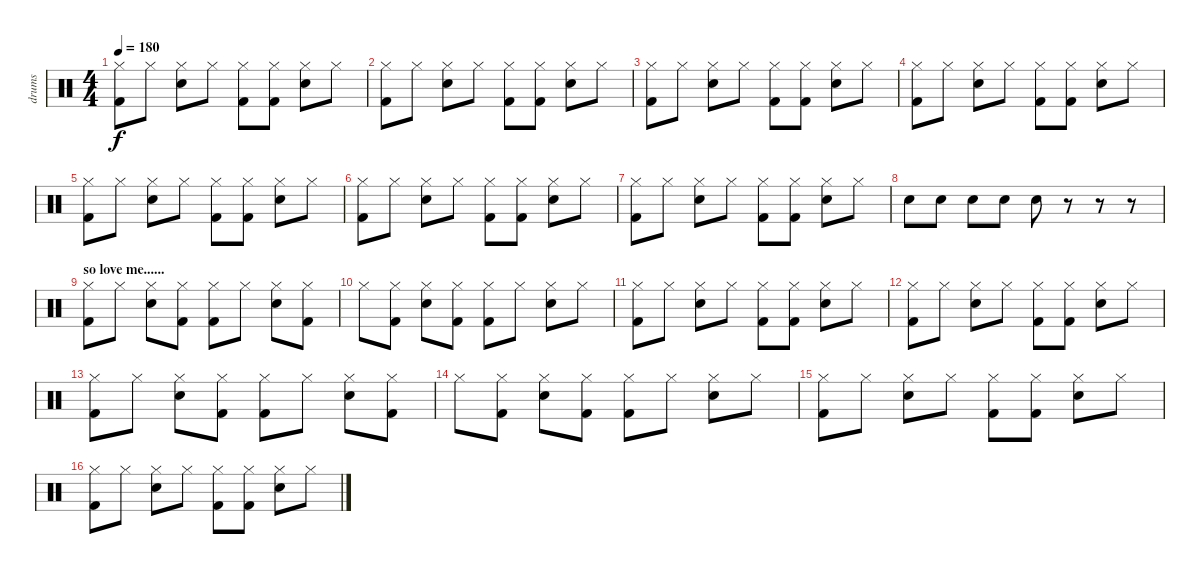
\track ("drums" "drums") {instrument percussion}
\staff {score}
\articulation defaults
\ts (4 4)
\tempo 180
\clef neutral
\ks c
("Hi-Hat (closed)" "Kick (hit) 2").8{dy f} "Hi-Hat (closed)".8 ("Hi-Hat (closed)" "Snare (hit) 2").8 "Hi-Hat (closed)".8 ("Hi-Hat (closed)" "Kick (hit) 2").8 ("Hi-Hat (closed)" "Kick (hit) 2").8 ("Hi-Hat (closed)" "Snare (hit) 2").8 "Hi-Hat (closed)".8 |
("Hi-Hat (closed)" "Kick (hit) 2").8 "Hi-Hat (closed)".8 ("Hi-Hat (closed)" "Snare (hit) 2").8 "Hi-Hat (closed)".8 ("Hi-Hat (closed)" "Kick (hit) 2").8 ("Hi-Hat (closed)" "Kick (hit) 2").8 ("Hi-Hat (closed)" "Snare (hit) 2").8 "Hi-Hat (closed)".8 |
("Hi-Hat (closed)" "Kick (hit) 2").8 "Hi-Hat (closed)".8 ("Hi-Hat (closed)" "Snare (hit) 2").8 "Hi-Hat (closed)".8 ("Hi-Hat (closed)" "Kick (hit) 2").8 ("Hi-Hat (closed)" "Kick (hit) 2").8 ("Hi-Hat (closed)" "Snare (hit) 2").8 "Hi-Hat (closed)".8 |
("Hi-Hat (closed)" "Kick (hit) 2").8 "Hi-Hat (closed)".8 ("Hi-Hat (closed)" "Snare (hit) 2").8 "Hi-Hat (closed)".8 ("Hi-Hat (closed)" "Kick (hit) 2").8 ("Hi-Hat (closed)" "Kick (hit) 2").8 ("Hi-Hat (closed)" "Snare (hit) 2").8 "Hi-Hat (closed)".8 |
("Hi-Hat (closed)" "Kick (hit) 2").8 "Hi-Hat (closed)".8 ("Hi-Hat (closed)" "Snare (hit) 2").8 "Hi-Hat (closed)".8 ("Hi-Hat (closed)" "Kick (hit) 2").8 ("Hi-Hat (closed)" "Kick (hit) 2").8 ("Hi-Hat (closed)" "Snare (hit) 2").8 "Hi-Hat (closed)".8 |
("Hi-Hat (closed)" "Kick (hit) 2").8 "Hi-Hat (closed)".8 ("Hi-Hat (closed)" "Snare (hit) 2").8 "Hi-Hat (closed)".8 ("Hi-Hat (closed)" "Kick (hit) 2").8 ("Hi-Hat (closed)" "Kick (hit) 2").8 ("Hi-Hat (closed)" "Snare (hit) 2").8 "Hi-Hat (closed)".8 |
("Hi-Hat (closed)" "Kick (hit) 2").8 "Hi-Hat (closed)".8 ("Hi-Hat (closed)" "Snare (hit) 2").8 "Hi-Hat (closed)".8 ("Hi-Hat (closed)" "Kick (hit) 2").8 ("Hi-Hat (closed)" "Kick (hit) 2").8 ("Hi-Hat (closed)" "Snare (hit) 2").8 "Hi-Hat (closed)".8 |
"Snare (hit) 2".8 "Snare (hit) 2".8 "Snare (hit) 2".8 "Snare (hit) 2".8 "Snare (hit) 2".8 r.8 r.8 r.8 |
\section ("" "so love me......")
("Hi-Hat (closed)" "Kick (hit) 2").8 "Hi-Hat (closed)".8 ("Hi-Hat (closed)" "Snare (hit) 2").8 ("Hi-Hat (closed)" "Kick (hit) 2").8 ("Hi-Hat (closed)" "Kick (hit) 2").8 "Hi-Hat (closed)".8 ("Hi-Hat (closed)" "Snare (hit) 2").8 ("Hi-Hat (closed)" "Kick (hit) 2").8 |
"Hi-Hat (closed)".8 ("Hi-Hat (closed)" "Kick (hit) 2").8 ("Hi-Hat (closed)" "Snare (hit) 2").8 ("Hi-Hat (closed)" "Kick (hit) 2").8 ("Hi-Hat (closed)" "Kick (hit) 2").8 "Hi-Hat (closed)".8 ("Hi-Hat (closed)" "Snare (hit) 2").8 "Hi-Hat (closed)".8 |
("Hi-Hat (closed)" "Kick (hit) 2").8 "Hi-Hat (closed)".8 ("Hi-Hat (closed)" "Snare (hit) 2").8 "Hi-Hat (closed)".8 ("Hi-Hat (closed)" "Kick (hit) 2").8 ("Hi-Hat (closed)" "Kick (hit) 2").8 ("Hi-Hat (closed)" "Snare (hit) 2").8 "Hi-Hat (closed)".8 |
("Hi-Hat (closed)" "Kick (hit) 2").8 "Hi-Hat (closed)".8 ("Hi-Hat (closed)" "Snare (hit) 2").8 "Hi-Hat (closed)".8 ("Hi-Hat (closed)" "Kick (hit) 2").8 ("Hi-Hat (closed)" "Kick (hit) 2").8 ("Hi-Hat (closed)" "Snare (hit) 2").8 "Hi-Hat (closed)".8 |
("Hi-Hat (closed)" "Kick (hit) 2").8 "Hi-Hat (closed)".8 ("Hi-Hat (closed)" "Snare (hit) 2").8 ("Hi-Hat (closed)" "Kick (hit) 2").8 ("Hi-Hat (closed)" "Kick (hit) 2").8 "Hi-Hat (closed)".8 ("Hi-Hat (closed)" "Snare (hit) 2").8 ("Hi-Hat (closed)" "Kick (hit) 2").8 |
"Hi-Hat (closed)".8 ("Hi-Hat (closed)" "Kick (hit) 2").8 ("Hi-Hat (closed)" "Snare (hit) 2").8 ("Hi-Hat (closed)" "Kick (hit) 2").8 ("Hi-Hat (closed)" "Kick (hit) 2").8 "Hi-Hat (closed)".8 ("Hi-Hat (closed)" "Snare (hit) 2").8 "Hi-Hat (closed)".8 |
("Hi-Hat (closed)" "Kick (hit) 2").8 "Hi-Hat (closed)".8 ("Hi-Hat (closed)" "Snare (hit) 2").8 "Hi-Hat (closed)".8 ("Hi-Hat (closed)" "Kick (hit) 2").8 ("Hi-Hat (closed)" "Kick (hit) 2").8 ("Hi-Hat (closed)" "Snare (hit) 2").8 "Hi-Hat (closed)".8 |
("Hi-Hat (closed)" "Kick (hit) 2").8 "Hi-Hat (closed)".8 ("Hi-Hat (closed)" "Snare (hit) 2").8 "Hi-Hat (closed)".8 ("Hi-Hat (closed)" "Kick (hit) 2").8 ("Hi-Hat (closed)" "Kick (hit) 2").8 ("Hi-Hat (closed)" "Snare (hit) 2").8 "Hi-Hat (closed)".8
